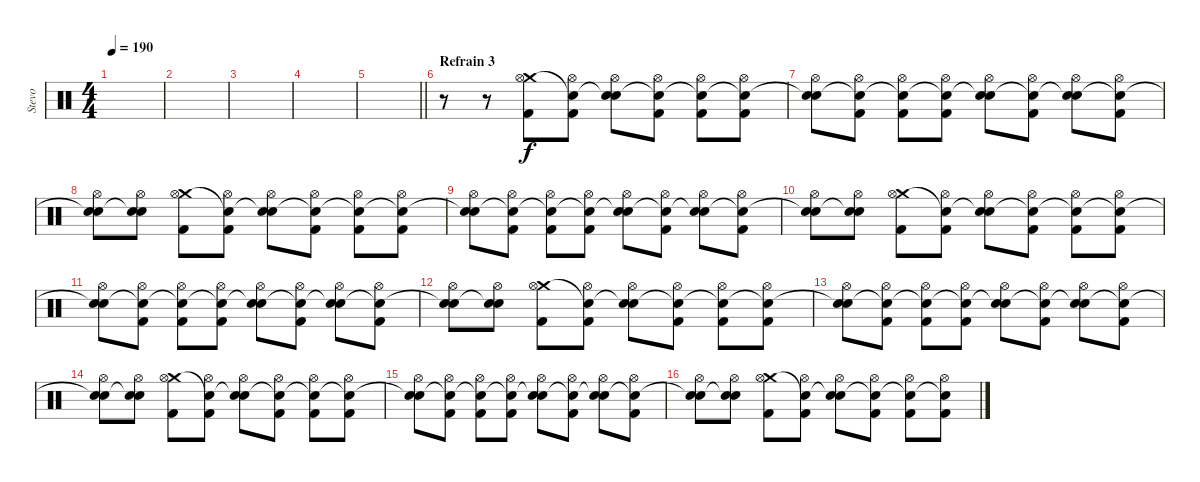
\track ("Stevo" "Stevo") {instrument percussion}
\staff {score}
\articulation defaults
\ts (4 4)
\tempo 190
\clef neutral
\ks c
|
|
|
|
\barLineRight lightlight
|
\section ("" "Refrain 3")
r.8 r.8 ("Crash medium (hit)" "Hi-Hat (open)" "Kick (hit) 2").8 ("Snare (hit)"{t} "Hi-Hat (open)" "Kick (hit) 2").8 ("Snare (hit)"{t} "Hi-Hat (open)" "Electric Snare (hit)").8 ("Snare (hit)"{t} "Hi-Hat (open)" "Kick (hit) 2").8 ("Snare (hit)"{t} "Hi-Hat (open)" "Kick (hit) 2").8 ("Snare (hit)"{t} "Hi-Hat (open)" "Kick (hit) 2").8 |
("Snare (hit)"{t} "Hi-Hat (open)" "Electric Snare (hit)").8 ("Snare (hit)"{t} "Hi-Hat (open)" "Kick (hit) 2").8 ("Snare (hit)"{t} "Hi-Hat (open)" "Kick (hit) 2").8 ("Snare (hit)"{t} "Hi-Hat (open)" "Kick (hit) 2").8 ("Snare (hit)"{t} "Hi-Hat (open)" "Electric Snare (hit)").8 ("Snare (hit)"{t} "Hi-Hat (open)" "Kick (hit) 2").8 ("Snare (hit)"{t} "Hi-Hat (open)" "Electric Snare (hit)").8 ("Snare (hit)"{t} "Hi-Hat (open)" "Kick (hit) 2").8 |
("Snare (hit)"{t} "Hi-Hat (open)" "Electric Snare (hit)").8 ("Snare (hit)"{t} "Hi-Hat (open)" "Electric Snare (hit)").8 ("Crash medium (hit)" "Hi-Hat (open)" "Kick (hit) 2").8 ("Snare (hit)"{t} "Hi-Hat (open)" "Kick (hit) 2").8 ("Snare (hit)"{t} "Hi-Hat (open)" "Electric Snare (hit)").8 ("Snare (hit)"{t} "Hi-Hat (open)" "Kick (hit) 2").8 ("Snare (hit)"{t} "Hi-Hat (open)" "Kick (hit) 2").8 ("Snare (hit)"{t} "Hi-Hat (open)" "Kick (hit) 2").8 |
("Snare (hit)"{t} "Hi-Hat (open)" "Electric Snare (hit)").8 ("Snare (hit)"{t} "Hi-Hat (open)" "Kick (hit) 2").8 ("Snare (hit)"{t} "Hi-Hat (open)" "Kick (hit) 2").8 ("Snare (hit)"{t} "Hi-Hat (open)" "Kick (hit) 2").8 ("Snare (hit)"{t} "Hi-Hat (open)" "Electric Snare (hit)").8 ("Snare (hit)"{t} "Hi-Hat (open)" "Kick (hit) 2").8 ("Snare (hit)"{t} "Hi-Hat (open)" "Electric Snare (hit)").8 ("Snare (hit)"{t} "Hi-Hat (open)" "Kick (hit) 2").8 |
("Snare (hit)"{t} "Hi-Hat (open)" "Electric Snare (hit)").8 ("Snare (hit)"{t} "Hi-Hat (open)" "Electric Snare (hit)").8 ("Crash medium (hit)" "Hi-Hat (open)" "Kick (hit) 2").8 ("Snare (hit)"{t} "Hi-Hat (open)" "Kick (hit) 2").8 ("Snare (hit)"{t} "Hi-Hat (open)" "Electric Snare (hit)").8 ("Snare (hit)"{t} "Hi-Hat (open)" "Kick (hit) 2").8 ("Snare (hit)"{t} "Hi-Hat (open)" "Kick (hit) 2").8 ("Snare (hit)"{t} "Hi-Hat (open)" "Kick (hit) 2").8 |
("Snare (hit)"{t} "Hi-Hat (open)" "Electric Snare (hit)").8 ("Snare (hit)"{t} "Hi-Hat (open)" "Kick (hit) 2").8 ("Snare (hit)"{t} "Hi-Hat (open)" "Kick (hit) 2").8 ("Snare (hit)"{t} "Hi-Hat (open)" "Kick (hit) 2").8 ("Snare (hit)"{t} "Hi-Hat (open)" "Electric Snare (hit)").8 ("Snare (hit)"{t} "Hi-Hat (open)" "Kick (hit) 2").8 ("Snare (hit)"{t} "Hi-Hat (open)" "Electric Snare (hit)").8 ("Snare (hit)"{t} "Hi-Hat (open)" "Kick (hit) 2").8 |
("Snare (hit)"{t} "Hi-Hat (open)" "Electric Snare (hit)").8 ("Snare (hit)"{t} "Hi-Hat (open)" "Electric Snare (hit)").8 ("Crash medium (hit)" "Hi-Hat (open)" "Kick (hit) 2").8 ("Snare (hit)"{t} "Hi-Hat (open)" "Kick (hit) 2").8 ("Snare (hit)"{t} "Hi-Hat (open)" "Electric Snare (hit)").8 ("Snare (hit)"{t} "Hi-Hat (open)" "Kick (hit) 2").8 ("Snare (hit)"{t} "Hi-Hat (open)" "Kick (hit) 2").8 ("Snare (hit)"{t} "Hi-Hat (open)" "Kick (hit) 2").8 |
("Snare (hit)"{t} "Hi-Hat (open)" "Electric Snare (hit)").8 ("Snare (hit)"{t} "Hi-Hat (open)" "Kick (hit) 2").8 ("Snare (hit)"{t} "Hi-Hat (open)" "Kick (hit) 2").8 ("Snare (hit)"{t} "Hi-Hat (open)" "Kick (hit) 2").8 ("Snare (hit)"{t} "Hi-Hat (open)" "Electric Snare (hit)").8 ("Snare (hit)"{t} "Hi-Hat (open)" "Kick (hit) 2").8 ("Snare (hit)"{t} "Hi-Hat (open)" "Electric Snare (hit)").8 ("Snare (hit)"{t} "Hi-Hat (open)" "Kick (hit) 2").8 |
("Snare (hit)"{t} "Hi-Hat (open)" "Electric Snare (hit)").8 ("Snare (hit)"{t} "Hi-Hat (open)" "Electric Snare (hit)").8 ("Crash medium (hit)" "Hi-Hat (open)" "Kick (hit) 2").8 ("Snare (hit)"{t} "Hi-Hat (open)" "Kick (hit) 2").8 ("Snare (hit)"{t} "Hi-Hat (open)" "Electric Snare (hit)").8 ("Snare (hit)"{t} "Hi-Hat (open)" "Kick (hit) 2").8 ("Snare (hit)"{t} "Hi-Hat (open)" "Kick (hit) 2").8 ("Snare (hit)"{t} "Hi-Hat (open)" "Kick (hit) 2").8 |
("Snare (hit)"{t} "Hi-Hat (open)" "Electric Snare (hit)").8 ("Snare (hit)"{t} "Hi-Hat (open)" "Kick (hit) 2").8 ("Snare (hit)"{t} "Hi-Hat (open)" "Kick (hit) 2").8 ("Snare (hit)"{t} "Hi-Hat (open)" "Kick (hit) 2").8 ("Snare (hit)"{t} "Hi-Hat (open)" "Electric Snare (hit)").8 ("Snare (hit)"{t} "Hi-Hat (open)" "Kick (hit) 2").8 ("Snare (hit)"{t} "Hi-Hat (open)" "Electric Snare (hit)").8 ("Snare (hit)"{t} "Hi-Hat (open)" "Kick (hit) 2").8 |
("Snare (hit)"{t} "Hi-Hat (open)" "Electric Snare (hit)").8 ("Snare (hit)"{t} "Hi-Hat (open)" "Electric Snare (hit)").8 ("Crash medium (hit)" "Hi-Hat (open)" "Kick (hit) 2").8 ("Snare (hit)"{t} "Hi-Hat (open)" "Kick (hit) 2").8 ("Snare (hit)"{t} "Hi-Hat (open)" "Electric Snare (hit)").8 ("Snare (hit)"{t} "Hi-Hat (open)" "Kick (hit) 2").8 ("Snare (hit)"{t} "Hi-Hat (open)" "Kick (hit) 2").8 ("Snare (hit)"{t} "Hi-Hat (open)" "Kick (hit) 2").8
